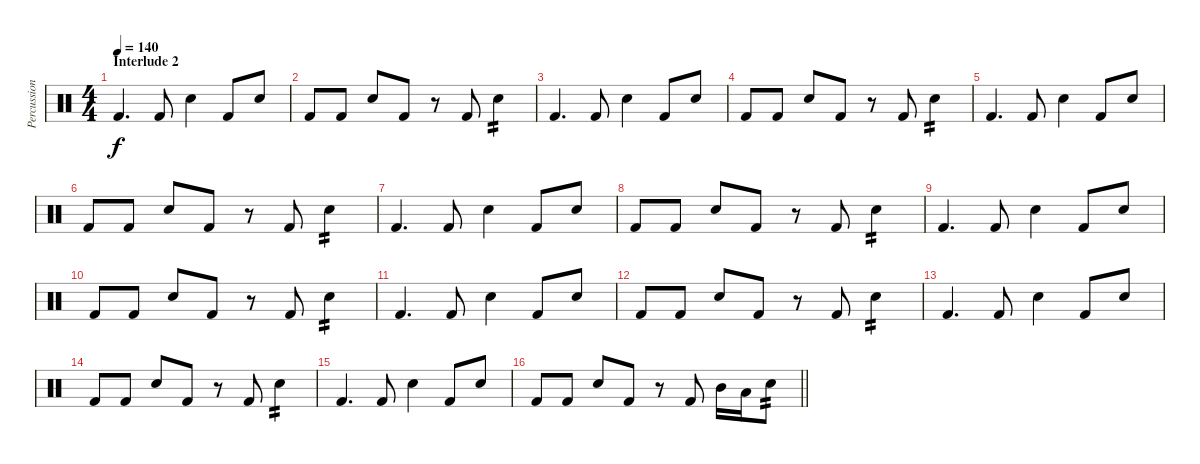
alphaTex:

\track ("Percussion" "Percussion") {instrument percussion}
\staff {score}
\articulation defaults
\ts (4 4)
\section ("" "Interlude 2")
\tempo 140
\clef neutral
\ks c "Kick (hit) 2".4{d dy f} "Kick (hit) 2".8 "Electric Snare (hit)".4 "Kick (hit) 2".8 "Electric Snare (hit)".8
|
"Kick (hit) 2".8 "Kick (hit) 2".8 "Electric Snare (hit)".8 "Kick (hit) 2".8 r.8 "Kick (hit) 2".8 "Electric Snare (hit)".4{tp 2} |
"Kick (hit) 2".4{d} "Kick (hit) 2".8 "Electric Snare (hit)".4 "Kick (hit) 2".8 "Electric Snare (hit)".8 |
"Kick (hit) 2".8 "Kick (hit) 2".8 "Electric Snare (hit)".8 "Kick (hit) 2".8 r.8 "Kick (hit) 2".8 "Electric Snare (hit)".4{tp 2} |
"Kick (hit) 2".4{d} "Kick (hit) 2".8 "Electric Snare (hit)".4 "Kick (hit) 2".8 "Electric Snare (hit)".8 |
"Kick (hit) 2".8 "Kick (hit) 2".8 "Electric Snare (hit)".8 "Kick (hit) 2".8 r.8 "Kick (hit) 2".8 "Electric Snare (hit)".4{tp 2} |
"Kick (hit) 2".4{d} "Kick (hit) 2".8 "Electric Snare (hit)".4 "Kick (hit) 2".8 "Electric Snare (hit)".8 |
"Kick (hit) 2".8 "Kick (hit) 2".8 "Electric Snare (hit)".8 "Kick (hit) 2".8 r.8 "Kick (hit) 2".8 "Electric Snare (hit)".4{tp 2} |
"Kick (hit) 2".4{d} "Kick (hit) 2".8 "Electric Snare (hit)".4 "Kick (hit) 2".8 "Electric Snare (hit)".8 |
"Kick (hit) 2".8 "Kick (hit) 2".8 "Electric Snare (hit)".8 "Kick (hit) 2".8 r.8 "Kick (hit) 2".8 "Electric Snare (hit)".4{tp 2} |
"Kick (hit) 2".4{d} "Kick (hit) 2".8 "Electric Snare (hit)".4 "Kick (hit) 2".8 "Electric Snare (hit)".8 |
"Kick (hit) 2".8 "Kick (hit) 2".8 "Electric Snare (hit)".8 "Kick (hit) 2".8 r.8 "Kick (hit) 2".8 "Electric Snare (hit)".4{tp 2} |
"Kick (hit) 2".4{d} "Kick (hit) 2".8 "Electric Snare (hit)".4 "Kick (hit) 2".8 "Electric Snare (hit)".8 |
"Kick (hit) 2".8 "Kick (hit) 2".8 "Electric Snare (hit)".8 "Kick (hit) 2".8 r.8 "Kick (hit) 2".8 "Electric Snare (hit)".4{tp 2} |
"Kick (hit) 2".4{d} "Kick (hit) 2".8 "Electric Snare (hit)".4 "Kick (hit) 2".8 "Electric Snare (hit)".8 |
\barLineRight lightlight "Kick (hit) 2".8 "Kick (hit) 2".8 "Electric Snare (hit)".8 "Kick (hit) 2".8
r.8 "Kick (hit) 2".8 "Mid Tom (hit)".16 "Low Tom (hit)".16 "Electric Snare (hit)".8{tp 2}
